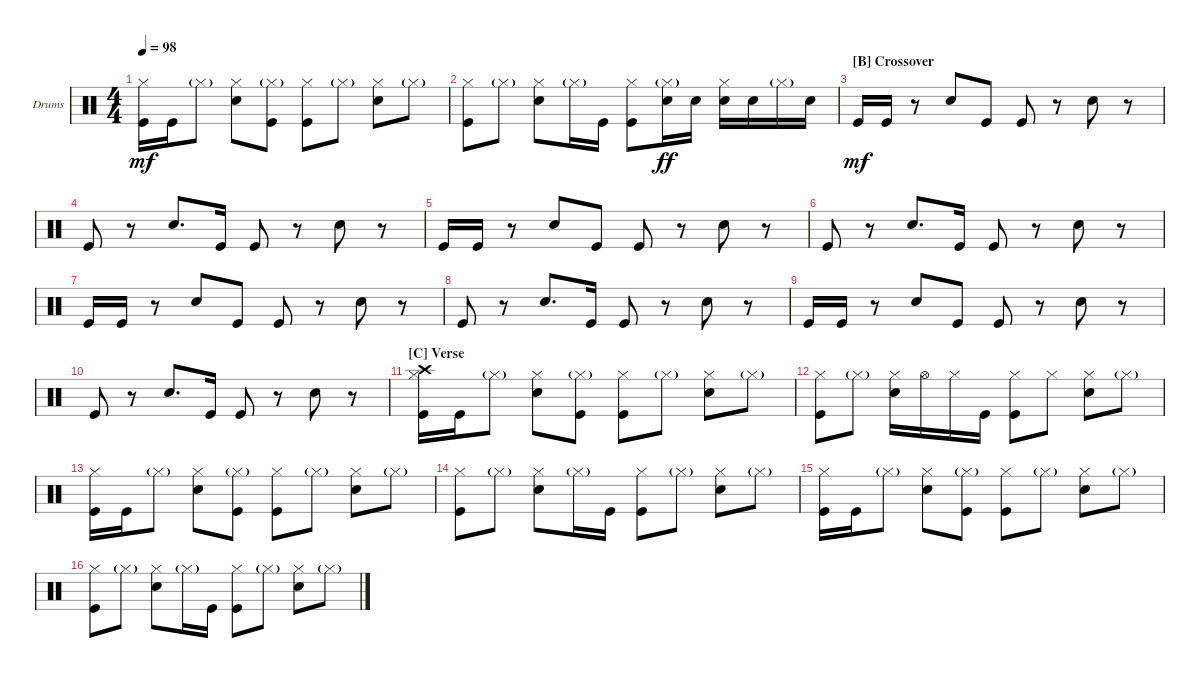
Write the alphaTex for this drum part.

\defaultSystemsLayout 4
\bracketExtendMode groupsimilarinstruments
\firstSystemTrackNameOrientation horizontal
\otherSystemsTrackNameOrientation horizontal
\track ("Drumkit" "Drums") {instrument percussion}
\staff {score}
\articulation defaults
\ts (4 4)
\tempo 98
\clef neutral
\ks c
("Kick (hit)" "Hi-Hat (closed)").16{dy mf} "Kick (hit)".16 "Hi-Hat (closed)"{g}.8 ("Snare (hit) 2" "Hi-Hat (closed)").8 ("Kick (hit)" "Hi-Hat (closed)"{g}).8 ("Kick (hit)" "Hi-Hat (closed)").8 "Hi-Hat (closed)"{g}.8 ("Snare (hit) 2" "Hi-Hat (closed)").8 "Hi-Hat (closed)"{g}.8 |
("Kick (hit)" "Hi-Hat (closed)").8 "Hi-Hat (closed)"{g}.8 ("Snare (hit) 2" "Hi-Hat (closed)").8 "Hi-Hat (closed)"{g}.16 "Kick (hit)".16 ("Kick (hit)" "Hi-Hat (closed)").8 ("Snare (hit) 2" "Hi-Hat (closed)"{g}).16{dy ff} "Snare (hit) 2".16 ("Snare (hit) 2" "Hi-Hat (closed)").16 "Snare (hit) 2".16 "Hi-Hat (closed)"{g}.16 "Snare (hit) 2".16 |
\section ("B" "Crossover")
"Kick (hit)".16{dy mf} "Kick (hit)".16 r.8 "Snare (hit) 2".8 "Kick (hit)".8 "Kick (hit)".8 r.8 "Snare (hit) 2".8 r.8 |
"Kick (hit)".8 r.8 "Snare (hit) 2".8{d} "Kick (hit)".16 "Kick (hit)".8 r.8 "Snare (hit) 2".8 r.8 |
"Kick (hit)".16 "Kick (hit)".16 r.8 "Snare (hit) 2".8 "Kick (hit)".8 "Kick (hit)".8 r.8 "Snare (hit) 2".8 r.8 |
"Kick (hit)".8 r.8 "Snare (hit) 2".8{d} "Kick (hit)".16 "Kick (hit)".8 r.8 "Snare (hit) 2".8 r.8 |
"Kick (hit)".16 "Kick (hit)".16 r.8 "Snare (hit) 2".8 "Kick (hit)".8 "Kick (hit)".8 r.8 "Snare (hit) 2".8 r.8 |
"Kick (hit)".8 r.8 "Snare (hit) 2".8{d} "Kick (hit)".16 "Kick (hit)".8 r.8 "Snare (hit) 2".8 r.8 |
"Kick (hit)".16 "Kick (hit)".16 r.8 "Snare (hit) 2".8 "Kick (hit)".8 "Kick (hit)".8 r.8 "Snare (hit) 2".8 r.8 |
"Kick (hit)".8 r.8 "Snare (hit) 2".8{d} "Kick (hit)".16 "Kick (hit)".8 r.8 "Snare (hit) 2".8 r.8 |
\section ("C" "Verse")
("Kick (hit)" "Hi-Hat (closed)" "Crash high (hit)").16 "Kick (hit)".16 "Hi-Hat (closed)"{g}.8 ("Snare (hit) 2" "Hi-Hat (closed)").8 ("Kick (hit)" "Hi-Hat (closed)"{g}).8 ("Kick (hit)" "Hi-Hat (closed)").8 "Hi-Hat (closed)"{g}.8 ("Snare (hit) 2" "Hi-Hat (closed)").8 "Hi-Hat (closed)"{g}.8 |
("Kick (hit)" "Hi-Hat (closed)").8 "Hi-Hat (closed)"{g}.8 ("Hi-Hat (closed)" "Snare (hit) 2").16 "Hi-Hat (open)".16 "Hi-Hat (closed)".16 "Kick (hit)".16 ("Hi-Hat (closed)" "Kick (hit)").8 "Hi-Hat (closed)".8 ("Hi-Hat (closed)" "Snare (hit) 2").8 "Hi-Hat (closed)"{g}.8 |
("Kick (hit)" "Hi-Hat (closed)").16 "Kick (hit)".16 "Hi-Hat (closed)"{g}.8 ("Snare (hit) 2" "Hi-Hat (closed)").8 ("Kick (hit)" "Hi-Hat (closed)"{g}).8 ("Kick (hit)" "Hi-Hat (closed)").8 "Hi-Hat (closed)"{g}.8 ("Snare (hit) 2" "Hi-Hat (closed)").8 "Hi-Hat (closed)"{g}.8 |
("Kick (hit)" "Hi-Hat (closed)").8 "Hi-Hat (closed)"{g}.8 ("Snare (hit) 2" "Hi-Hat (closed)").8 "Hi-Hat (closed)"{g}.16 "Kick (hit)".16 ("Kick (hit)" "Hi-Hat (closed)").8 "Hi-Hat (closed)"{g}.8 ("Snare (hit) 2" "Hi-Hat (closed)").8 "Hi-Hat (closed)"{g}.8 |
("Kick (hit)" "Hi-Hat (closed)").16 "Kick (hit)".16 "Hi-Hat (closed)"{g}.8 ("Snare (hit) 2" "Hi-Hat (closed)").8 ("Kick (hit)" "Hi-Hat (closed)"{g}).8 ("Kick (hit)" "Hi-Hat (closed)").8 "Hi-Hat (closed)"{g}.8 ("Snare (hit) 2" "Hi-Hat (closed)").8 "Hi-Hat (closed)"{g}.8 |
("Kick (hit)" "Hi-Hat (closed)").8 "Hi-Hat (closed)"{g}.8 ("Snare (hit) 2" "Hi-Hat (closed)").8 "Hi-Hat (closed)"{g}.16 "Kick (hit)".16 ("Kick (hit)" "Hi-Hat (closed)").8 "Hi-Hat (closed)"{g}.8 ("Snare (hit) 2" "Hi-Hat (closed)").8 "Hi-Hat (closed)"{g}.8
